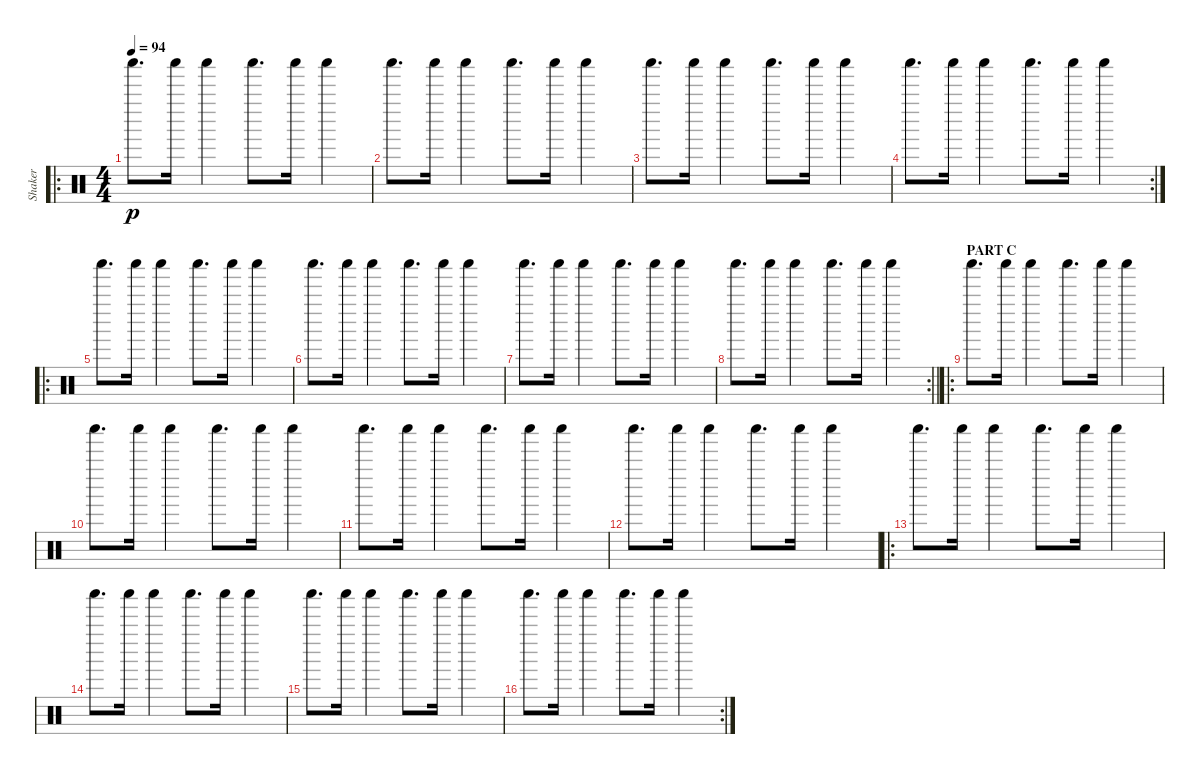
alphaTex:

\track ("Shaker" "Shaker") {instrument percussion}
\staff {score}
\articulation defaults
\ro
\ts (4 4)
\tempo 94
\clef neutral
\ks c "Shaker (hit)".8{d dy p} "Shaker (hit)".16 "Shaker (hit)".4 "Shaker (hit)".8{d} "Shaker (hit)".16 "Shaker (hit)".4
|
"Shaker (hit)".8{d} "Shaker (hit)".16 "Shaker (hit)".4 "Shaker (hit)".8{d} "Shaker (hit)".16 "Shaker (hit)".4 |
"Shaker (hit)".8{d} "Shaker (hit)".16 "Shaker (hit)".4 "Shaker (hit)".8{d} "Shaker (hit)".16 "Shaker (hit)".4 |
\rc 2 "Shaker (hit)".8{d} "Shaker (hit)".16 "Shaker (hit)".4 "Shaker (hit)".8{d} "Shaker (hit)".16 "Shaker (hit)".4
|
\ro "Shaker (hit)".8{d} "Shaker (hit)".16 "Shaker (hit)".4 "Shaker (hit)".8{d} "Shaker (hit)".16 "Shaker (hit)".4
|
"Shaker (hit)".8{d} "Shaker (hit)".16 "Shaker (hit)".4 "Shaker (hit)".8{d} "Shaker (hit)".16 "Shaker (hit)".4 |
"Shaker (hit)".8{d} "Shaker (hit)".16 "Shaker (hit)".4 "Shaker (hit)".8{d} "Shaker (hit)".16 "Shaker (hit)".4 |
\rc 2
\barLineRight lightlight "Shaker (hit)".8{d} "Shaker (hit)".16 "Shaker (hit)".4 "Shaker (hit)".8{d} "Shaker (hit)".16 "Shaker (hit)".4
|
\ro
\section ("" "PART C")
"Shaker (hit)".8{d} "Shaker (hit)".16 "Shaker (hit)".4 "Shaker (hit)".8{d} "Shaker (hit)".16 "Shaker (hit)".4 |
"Shaker (hit)".8{d} "Shaker (hit)".16 "Shaker (hit)".4 "Shaker (hit)".8{d} "Shaker (hit)".16 "Shaker (hit)".4 |
"Shaker (hit)".8{d} "Shaker (hit)".16 "Shaker (hit)".4 "Shaker (hit)".8{d} "Shaker (hit)".16 "Shaker (hit)".4 |
"Shaker (hit)".8{d} "Shaker (hit)".16 "Shaker (hit)".4 "Shaker (hit)".8{d} "Shaker (hit)".16 "Shaker (hit)".4 |
\ro "Shaker (hit)".8{d} "Shaker (hit)".16 "Shaker (hit)".4 "Shaker (hit)".8{d} "Shaker (hit)".16 "Shaker (hit)".4
|
"Shaker (hit)".8{d} "Shaker (hit)".16 "Shaker (hit)".4 "Shaker (hit)".8{d} "Shaker (hit)".16 "Shaker (hit)".4 |
"Shaker (hit)".8{d} "Shaker (hit)".16 "Shaker (hit)".4 "Shaker (hit)".8{d} "Shaker (hit)".16 "Shaker (hit)".4 |
\rc 2 "Shaker (hit)".8{d} "Shaker (hit)".16 "Shaker (hit)".4 "Shaker (hit)".8{d} "Shaker (hit)".16 "Shaker (hit)".4
